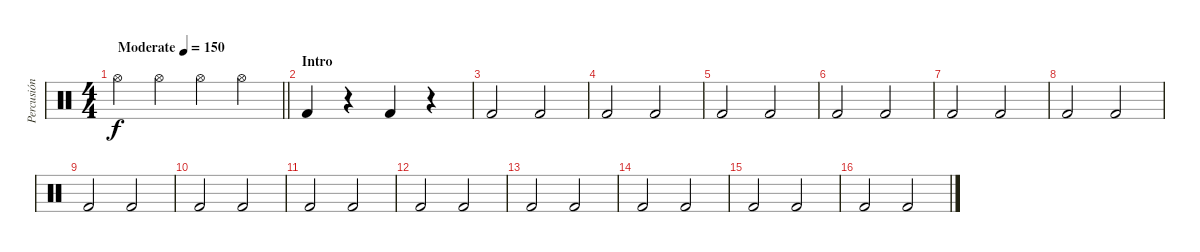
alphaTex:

\track ("Percusión" "Percusión") {instrument percussion}
\staff {score}
\articulation defaults
\ts (4 4)
\tempo (150 "Moderate")
\tempo 130
\tempo (150 "Moderate")
\clef neutral
\barLineRight lightlight
\ks c "Hi-Hat (open)".4{dy f} "Hi-Hat (open)".4 "Hi-Hat (open)".4 "Hi-Hat (open)".4
|
\section ("" "Intro")
"Kick (hit) 2".4 r.4 "Kick (hit) 2".4 r.4 |
"Kick (hit) 2".2 "Kick (hit) 2".2 |
"Kick (hit) 2".2 "Kick (hit) 2".2 |
"Kick (hit) 2".2 "Kick (hit) 2".2 |
"Kick (hit) 2".2 "Kick (hit) 2".2 |
"Kick (hit) 2".2 "Kick (hit) 2".2 |
"Kick (hit) 2".2 "Kick (hit) 2".2 |
"Kick (hit) 2".2 "Kick (hit) 2".2 |
"Kick (hit) 2".2 "Kick (hit) 2".2 |
"Kick (hit) 2".2 "Kick (hit) 2".2 |
"Kick (hit) 2".2 "Kick (hit) 2".2 |
"Kick (hit) 2".2 "Kick (hit) 2".2 |
"Kick (hit) 2".2 "Kick (hit) 2".2 |
"Kick (hit) 2".2 "Kick (hit) 2".2 |
"Kick (hit) 2".2 "Kick (hit) 2".2
